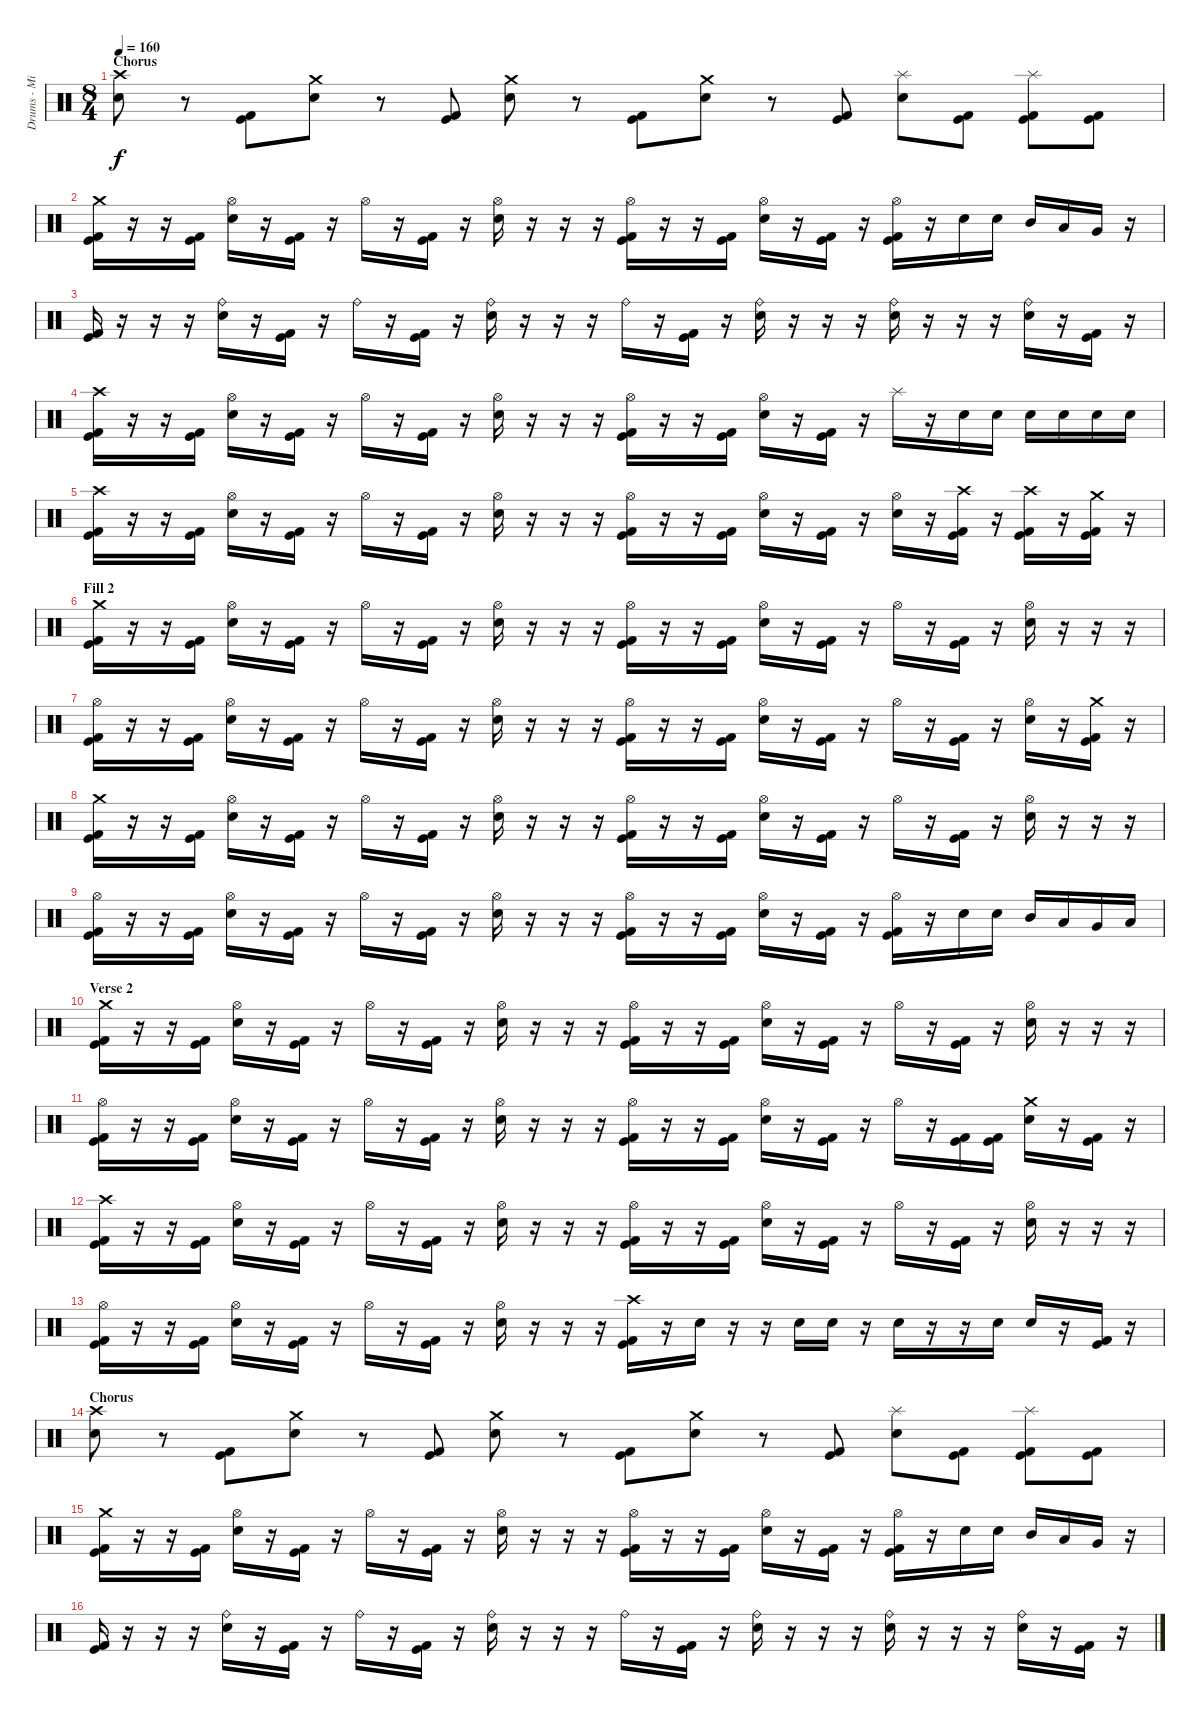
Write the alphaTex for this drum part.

\track ("Drums - Mikkey Dee" "Drums - Mi") {instrument percussion}
\staff {score}
\articulation defaults
\ts (8 4)
\section ("" "Chorus")
\tempo 160
\clef neutral
\ks c
("Crash high (hit)" "Electric Snare (hit)").8{dy f} r.8 ("Kick (hit) 2" "Kick (hit)").8 ("Crash medium (hit)" "Electric Snare (hit)").8 r.8 ("Kick (hit)" "Kick (hit) 2").8 ("Crash medium (hit)" "Electric Snare (hit)").8 r.8 ("Kick (hit) 2" "Kick (hit)").8 ("Crash medium (hit)" "Electric Snare (hit)").8 r.8 ("Kick (hit) 2" "Kick (hit)").8 ("Splash (hit)" "Electric Snare (hit)").8 ("Kick (hit) 2" "Kick (hit)").8 ("Splash (hit)" "Kick (hit) 2" "Kick (hit)").8 ("Kick (hit) 2" "Kick (hit)").8 |
("Crash medium (hit)" "Kick (hit) 2" "Kick (hit)").16 r.16 r.16 ("Kick (hit) 2" "Kick (hit)").16 ("Hi-Hat (open)" "Electric Snare (hit)").16 r.16 ("Kick (hit) 2" "Kick (hit)").16 r.16 "Hi-Hat (open)".16 r.16 ("Kick (hit) 2" "Kick (hit)").16 r.16 ("Hi-Hat (open)" "Electric Snare (hit)").16 r.16 r.16 r.16 ("Hi-Hat (open)" "Kick (hit) 2" "Kick (hit)").16 r.16 r.16 ("Kick (hit) 2" "Kick (hit)").16 ("Hi-Hat (open)" "Electric Snare (hit)").16 r.16 ("Kick (hit) 2" "Kick (hit)").16 r.16 ("Hi-Hat (open)" "Kick (hit) 2" "Kick (hit)").16 r.16 "Electric Snare (hit)".16 "Electric Snare (hit)".16 "Mid Tom (hit)".16 "Low Tom (hit)".16 "Very Low Tom (hit)".16 r.16 |
("Kick (hit) 2" "Kick (hit)").16 r.16 r.16 r.16 ("Ride (bell)" "Electric Snare (hit)").16 r.16 ("Kick (hit) 2" "Kick (hit)").16 r.16 "Ride (bell)".16 r.16 ("Kick (hit) 2" "Kick (hit)").16 r.16 ("Ride (bell)" "Electric Snare (hit)").16 r.16 r.16 r.16 "Ride (bell)".16 r.16 ("Kick (hit) 2" "Kick (hit)").16 r.16 ("Ride (bell)" "Electric Snare (hit)").16 r.16 r.16 r.16 ("Ride (bell)" "Electric Snare (hit)").16 r.16 r.16 r.16 ("Ride (bell)" "Electric Snare (hit)").16 r.16 ("Kick (hit) 2" "Kick (hit)").16 r.16 |
("Crash high (hit)" "Kick (hit) 2" "Kick (hit)").16 r.16 r.16 ("Kick (hit) 2" "Kick (hit)").16 ("Hi-Hat (open)" "Electric Snare (hit)").16 r.16 ("Kick (hit) 2" "Kick (hit)").16 r.16 "Hi-Hat (open)".16 r.16 ("Kick (hit) 2" "Kick (hit)").16 r.16 ("Hi-Hat (open)" "Electric Snare (hit)").16 r.16 r.16 r.16 ("Hi-Hat (open)" "Kick (hit) 2" "Kick (hit)").16 r.16 r.16 ("Kick (hit) 2" "Kick (hit)").16 ("Hi-Hat (open)" "Electric Snare (hit)").16 r.16 ("Kick (hit) 2" "Kick (hit)").16 r.16 "Splash (hit)".16 r.16 "Electric Snare (hit)".16 "Electric Snare (hit)".16 "Electric Snare (hit)".16 "Electric Snare (hit)".16 "Electric Snare (hit)".16 "Electric Snare (hit)".16 |
("Crash high (hit)" "Kick (hit) 2" "Kick (hit)").16 r.16 r.16 ("Kick (hit) 2" "Kick (hit)").16 ("Hi-Hat (open)" "Electric Snare (hit)").16 r.16 ("Kick (hit) 2" "Kick (hit)").16 r.16 "Hi-Hat (open)".16 r.16 ("Kick (hit) 2" "Kick (hit)").16 r.16 ("Hi-Hat (open)" "Electric Snare (hit)").16 r.16 r.16 r.16 ("Hi-Hat (open)" "Kick (hit) 2" "Kick (hit)").16 r.16 r.16 ("Kick (hit) 2" "Kick (hit)").16 ("Hi-Hat (open)" "Electric Snare (hit)").16 r.16 ("Kick (hit) 2" "Kick (hit)").16 r.16 ("Hi-Hat (open)" "Electric Snare (hit)").16 r.16 ("Crash high (hit)" "Kick (hit) 2" "Kick (hit)").16 r.16 ("Crash high (hit)" "Kick (hit) 2" "Kick (hit)").16 r.16 ("Crash medium (hit)" "Kick (hit) 2" "Kick (hit)").16 r.16 |
\section ("" "Fill 2")
("Crash medium (hit)" "Kick (hit) 2" "Kick (hit)").16 r.16 r.16 ("Kick (hit) 2" "Kick (hit)").16 ("Hi-Hat (open)" "Electric Snare (hit)").16 r.16 ("Kick (hit) 2" "Kick (hit)").16 r.16 "Hi-Hat (open)".16 r.16 ("Kick (hit) 2" "Kick (hit)").16 r.16 ("Hi-Hat (open)" "Electric Snare (hit)").16 r.16 r.16 r.16 ("Hi-Hat (open)" "Kick (hit) 2" "Kick (hit)").16 r.16 r.16 ("Kick (hit) 2" "Kick (hit)").16 ("Hi-Hat (open)" "Electric Snare (hit)").16 r.16 ("Kick (hit) 2" "Kick (hit)").16 r.16 "Hi-Hat (open)".16 r.16 ("Kick (hit) 2" "Kick (hit)").16 r.16 ("Hi-Hat (open)" "Electric Snare (hit)").16 r.16 r.16 r.16 |
("Hi-Hat (open)" "Kick (hit) 2" "Kick (hit)").16 r.16 r.16 ("Kick (hit) 2" "Kick (hit)").16 ("Hi-Hat (open)" "Electric Snare (hit)").16 r.16 ("Kick (hit) 2" "Kick (hit)").16 r.16 "Hi-Hat (open)".16 r.16 ("Kick (hit) 2" "Kick (hit)").16 r.16 ("Hi-Hat (open)" "Electric Snare (hit)").16 r.16 r.16 r.16 ("Hi-Hat (open)" "Kick (hit) 2" "Kick (hit)").16 r.16 r.16 ("Kick (hit) 2" "Kick (hit)").16 ("Hi-Hat (open)" "Electric Snare (hit)").16 r.16 ("Kick (hit) 2" "Kick (hit)").16 r.16 "Hi-Hat (open)".16 r.16 ("Kick (hit) 2" "Kick (hit)").16 r.16 ("Hi-Hat (open)" "Electric Snare (hit)").16 r.16 ("Crash medium (hit)" "Kick (hit) 2" "Kick (hit)").16 r.16 |
("Crash medium (hit)" "Kick (hit) 2" "Kick (hit)").16 r.16 r.16 ("Kick (hit) 2" "Kick (hit)").16 ("Hi-Hat (open)" "Electric Snare (hit)").16 r.16 ("Kick (hit) 2" "Kick (hit)").16 r.16 "Hi-Hat (open)".16 r.16 ("Kick (hit) 2" "Kick (hit)").16 r.16 ("Hi-Hat (open)" "Electric Snare (hit)").16 r.16 r.16 r.16 ("Hi-Hat (open)" "Kick (hit) 2" "Kick (hit)").16 r.16 r.16 ("Kick (hit) 2" "Kick (hit)").16 ("Hi-Hat (open)" "Electric Snare (hit)").16 r.16 ("Kick (hit) 2" "Kick (hit)").16 r.16 "Hi-Hat (open)".16 r.16 ("Kick (hit) 2" "Kick (hit)").16 r.16 ("Hi-Hat (open)" "Electric Snare (hit)").16 r.16 r.16 r.16 |
("Hi-Hat (open)" "Kick (hit) 2" "Kick (hit)").16 r.16 r.16 ("Kick (hit) 2" "Kick (hit)").16 ("Hi-Hat (open)" "Electric Snare (hit)").16 r.16 ("Kick (hit) 2" "Kick (hit)").16 r.16 "Hi-Hat (open)".16 r.16 ("Kick (hit) 2" "Kick (hit)").16 r.16 ("Hi-Hat (open)" "Electric Snare (hit)").16 r.16 r.16 r.16 ("Hi-Hat (open)" "Kick (hit) 2" "Kick (hit)").16 r.16 r.16 ("Kick (hit) 2" "Kick (hit)").16 ("Hi-Hat (open)" "Electric Snare (hit)").16 r.16 ("Kick (hit) 2" "Kick (hit)").16 r.16 ("Hi-Hat (open)" "Kick (hit) 2" "Kick (hit)").16 r.16 "Electric Snare (hit)".16 "Electric Snare (hit)".16 "Mid Tom (hit)".16 "Low Tom (hit)".16 "Very Low Tom (hit)".16 "Low Floor Tom (hit)".16 |
\section ("" "Verse 2")
("Crash medium (hit)" "Kick (hit) 2" "Kick (hit)").16 r.16 r.16 ("Kick (hit) 2" "Kick (hit)").16 ("Hi-Hat (open)" "Electric Snare (hit)").16 r.16 ("Kick (hit) 2" "Kick (hit)").16 r.16 "Hi-Hat (open)".16 r.16 ("Kick (hit) 2" "Kick (hit)").16 r.16 ("Hi-Hat (open)" "Electric Snare (hit)").16 r.16 r.16 r.16 ("Hi-Hat (open)" "Kick (hit) 2" "Kick (hit)").16 r.16 r.16 ("Kick (hit) 2" "Kick (hit)").16 ("Hi-Hat (open)" "Electric Snare (hit)").16 r.16 ("Kick (hit) 2" "Kick (hit)").16 r.16 "Hi-Hat (open)".16 r.16 ("Kick (hit) 2" "Kick (hit)").16 r.16 ("Hi-Hat (open)" "Electric Snare (hit)").16 r.16 r.16 r.16 |
("Hi-Hat (open)" "Kick (hit) 2" "Kick (hit)").16 r.16 r.16 ("Kick (hit) 2" "Kick (hit)").16 ("Hi-Hat (open)" "Electric Snare (hit)").16 r.16 ("Kick (hit) 2" "Kick (hit)").16 r.16 "Hi-Hat (open)".16 r.16 ("Kick (hit) 2" "Kick (hit)").16 r.16 ("Hi-Hat (open)" "Electric Snare (hit)").16 r.16 r.16 r.16 ("Hi-Hat (open)" "Kick (hit) 2" "Kick (hit)").16 r.16 r.16 ("Kick (hit) 2" "Kick (hit)").16 ("Hi-Hat (open)" "Electric Snare (hit)").16 r.16 ("Kick (hit) 2" "Kick (hit)").16 r.16 "Hi-Hat (open)".16 r.16 ("Kick (hit) 2" "Kick (hit)").16 ("Kick (hit) 2" "Kick (hit)").16 ("Crash medium (hit)" "Electric Snare (hit)").16 r.16 ("Kick (hit) 2" "Kick (hit)").16 r.16 |
("Crash high (hit)" "Kick (hit) 2" "Kick (hit)").16 r.16 r.16 ("Kick (hit) 2" "Kick (hit)").16 ("Hi-Hat (open)" "Electric Snare (hit)").16 r.16 ("Kick (hit) 2" "Kick (hit)").16 r.16 "Hi-Hat (open)".16 r.16 ("Kick (hit) 2" "Kick (hit)").16 r.16 ("Hi-Hat (open)" "Electric Snare (hit)").16 r.16 r.16 r.16 ("Hi-Hat (open)" "Kick (hit) 2" "Kick (hit)").16 r.16 r.16 ("Kick (hit) 2" "Kick (hit)").16 ("Hi-Hat (open)" "Electric Snare (hit)").16 r.16 ("Kick (hit) 2" "Kick (hit)").16 r.16 "Hi-Hat (open)".16 r.16 ("Kick (hit) 2" "Kick (hit)").16 r.16 ("Hi-Hat (open)" "Electric Snare (hit)").16 r.16 r.16 r.16 |
("Hi-Hat (open)" "Kick (hit) 2" "Kick (hit)").16 r.16 r.16 ("Kick (hit) 2" "Kick (hit)").16 ("Hi-Hat (open)" "Electric Snare (hit)").16 r.16 ("Kick (hit) 2" "Kick (hit)").16 r.16 "Hi-Hat (open)".16 r.16 ("Kick (hit) 2" "Kick (hit)").16 r.16 ("Hi-Hat (open)" "Electric Snare (hit)").16 r.16 r.16 r.16 ("Crash high (hit)" "Kick (hit) 2" "Kick (hit)").16 r.16 "Electric Snare (hit)".16 r.16 r.16 "Electric Snare (hit)".16 "Electric Snare (hit)".16 r.16 "Electric Snare (hit)".16 r.16 r.16 "Electric Snare (hit)".16 "Electric Snare (hit)".16 r.16 ("Kick (hit) 2" "Kick (hit)").16 r.16 |
\section ("" "Chorus")
("Crash high (hit)" "Electric Snare (hit)").8 r.8 ("Kick (hit) 2" "Kick (hit)").8 ("Crash medium (hit)" "Electric Snare (hit)").8 r.8 ("Kick (hit)" "Kick (hit) 2").8 ("Crash medium (hit)" "Electric Snare (hit)").8 r.8 ("Kick (hit) 2" "Kick (hit)").8 ("Crash medium (hit)" "Electric Snare (hit)").8 r.8 ("Kick (hit) 2" "Kick (hit)").8 ("Splash (hit)" "Electric Snare (hit)").8 ("Kick (hit) 2" "Kick (hit)").8 ("Splash (hit)" "Kick (hit) 2" "Kick (hit)").8 ("Kick (hit) 2" "Kick (hit)").8 |
("Crash medium (hit)" "Kick (hit) 2" "Kick (hit)").16 r.16 r.16 ("Kick (hit) 2" "Kick (hit)").16 ("Hi-Hat (open)" "Electric Snare (hit)").16 r.16 ("Kick (hit) 2" "Kick (hit)").16 r.16 "Hi-Hat (open)".16 r.16 ("Kick (hit) 2" "Kick (hit)").16 r.16 ("Hi-Hat (open)" "Electric Snare (hit)").16 r.16 r.16 r.16 ("Hi-Hat (open)" "Kick (hit) 2" "Kick (hit)").16 r.16 r.16 ("Kick (hit) 2" "Kick (hit)").16 ("Hi-Hat (open)" "Electric Snare (hit)").16 r.16 ("Kick (hit) 2" "Kick (hit)").16 r.16 ("Hi-Hat (open)" "Kick (hit) 2" "Kick (hit)").16 r.16 "Electric Snare (hit)".16 "Electric Snare (hit)".16 "Mid Tom (hit)".16 "Low Tom (hit)".16 "Very Low Tom (hit)".16 r.16 |
("Kick (hit) 2" "Kick (hit)").16 r.16 r.16 r.16 ("Ride (bell)" "Electric Snare (hit)").16 r.16 ("Kick (hit) 2" "Kick (hit)").16 r.16 "Ride (bell)".16 r.16 ("Kick (hit) 2" "Kick (hit)").16 r.16 ("Ride (bell)" "Electric Snare (hit)").16 r.16 r.16 r.16 "Ride (bell)".16 r.16 ("Kick (hit) 2" "Kick (hit)").16 r.16 ("Ride (bell)" "Electric Snare (hit)").16 r.16 r.16 r.16 ("Ride (bell)" "Electric Snare (hit)").16 r.16 r.16 r.16 ("Ride (bell)" "Electric Snare (hit)").16 r.16 ("Kick (hit) 2" "Kick (hit)").16 r.16
